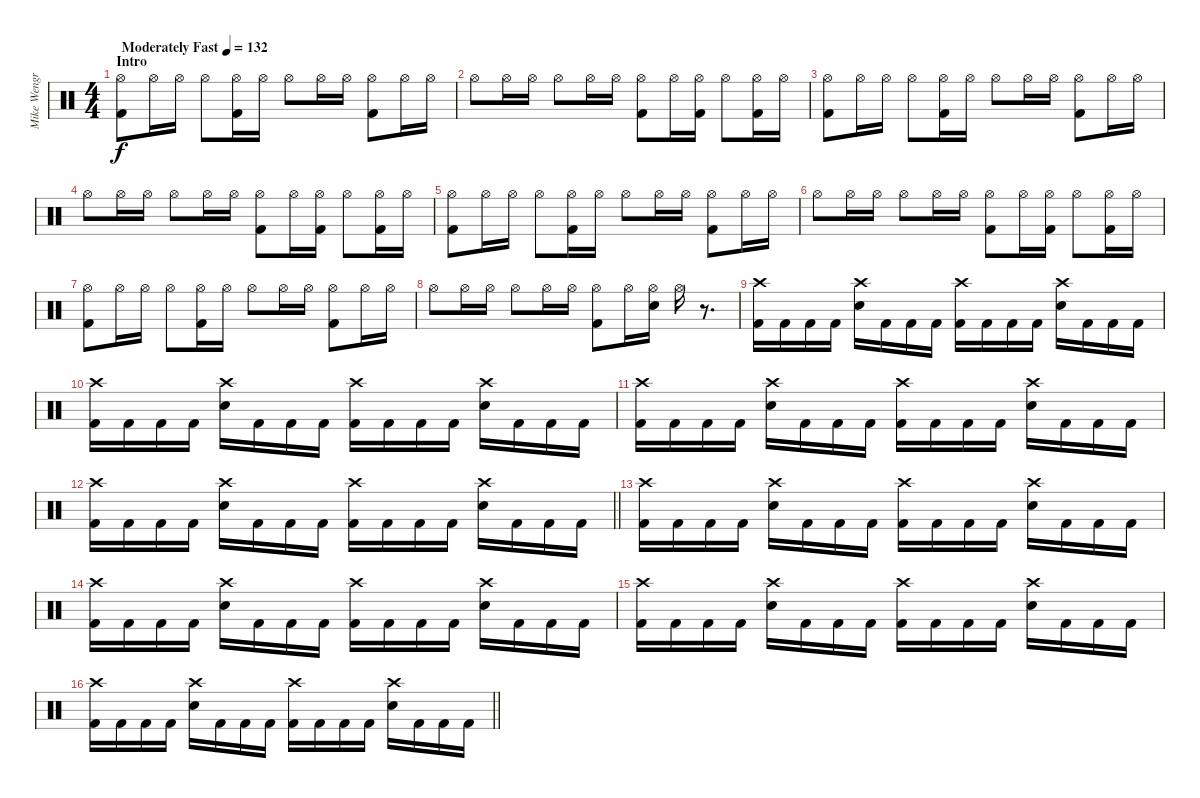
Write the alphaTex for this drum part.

\track ("Mike Wengren" "Mike Wengr") {instrument percussion}
\staff {score}
\articulation defaults
\ts (4 4)
\section ("" "Intro")
\tempo (132 "Moderately Fast")
\clef neutral
\ks c
("Hi-Hat (open)" "Kick (hit) 2").8{dy f} "Hi-Hat (open)".16 "Hi-Hat (open)".16 "Hi-Hat (open)".8 ("Hi-Hat (open)" "Kick (hit) 2").16 "Hi-Hat (open)".16 "Hi-Hat (open)".8 "Hi-Hat (open)".16 "Hi-Hat (open)".16 ("Hi-Hat (open)" "Kick (hit) 2").8 "Hi-Hat (open)".16 "Hi-Hat (open)".16 |
"Hi-Hat (open)".8 "Hi-Hat (open)".16 "Hi-Hat (open)".16 "Hi-Hat (open)".8 "Hi-Hat (open)".16 "Hi-Hat (open)".16 ("Hi-Hat (open)" "Kick (hit) 2").8 "Hi-Hat (open)".16 ("Hi-Hat (open)" "Kick (hit) 2").16 "Hi-Hat (open)".8 ("Hi-Hat (open)" "Kick (hit) 2").16 "Hi-Hat (open)".16 |
("Hi-Hat (open)" "Kick (hit) 2").8 "Hi-Hat (open)".16 "Hi-Hat (open)".16 "Hi-Hat (open)".8 ("Hi-Hat (open)" "Kick (hit) 2").16 "Hi-Hat (open)".16 "Hi-Hat (open)".8 "Hi-Hat (open)".16 "Hi-Hat (open)".16 ("Hi-Hat (open)" "Kick (hit) 2").8 "Hi-Hat (open)".16 "Hi-Hat (open)".16 |
"Hi-Hat (open)".8 "Hi-Hat (open)".16 "Hi-Hat (open)".16 "Hi-Hat (open)".8 "Hi-Hat (open)".16 "Hi-Hat (open)".16 ("Hi-Hat (open)" "Kick (hit) 2").8 "Hi-Hat (open)".16 ("Hi-Hat (open)" "Kick (hit) 2").16 "Hi-Hat (open)".8 ("Hi-Hat (open)" "Kick (hit) 2").16 "Hi-Hat (open)".16 |
("Hi-Hat (open)" "Kick (hit) 2").8 "Hi-Hat (open)".16 "Hi-Hat (open)".16 "Hi-Hat (open)".8 ("Hi-Hat (open)" "Kick (hit) 2").16 "Hi-Hat (open)".16 "Hi-Hat (open)".8 "Hi-Hat (open)".16 "Hi-Hat (open)".16 ("Hi-Hat (open)" "Kick (hit) 2").8 "Hi-Hat (open)".16 "Hi-Hat (open)".16 |
"Hi-Hat (open)".8 "Hi-Hat (open)".16 "Hi-Hat (open)".16 "Hi-Hat (open)".8 "Hi-Hat (open)".16 "Hi-Hat (open)".16 ("Hi-Hat (open)" "Kick (hit) 2").8 "Hi-Hat (open)".16 ("Hi-Hat (open)" "Kick (hit) 2").16 "Hi-Hat (open)".8 ("Hi-Hat (open)" "Kick (hit) 2").16 "Hi-Hat (open)".16 |
("Hi-Hat (open)" "Kick (hit) 2").8 "Hi-Hat (open)".16 "Hi-Hat (open)".16 "Hi-Hat (open)".8 ("Hi-Hat (open)" "Kick (hit) 2").16 "Hi-Hat (open)".16 "Hi-Hat (open)".8 "Hi-Hat (open)".16 "Hi-Hat (open)".16 ("Hi-Hat (open)" "Kick (hit) 2").8 "Hi-Hat (open)".16 "Hi-Hat (open)".16 |
"Hi-Hat (open)".8 "Hi-Hat (open)".16 "Hi-Hat (open)".16 "Hi-Hat (open)".8 "Hi-Hat (open)".16 "Hi-Hat (open)".16 ("Hi-Hat (open)" "Kick (hit) 2").8 "Hi-Hat (open)".16 ("Hi-Hat (open)" "Electric Snare (hit)").16 "Hi-Hat (open)".16 r.8{d} |
("Crash high (hit)" "Kick (hit) 2").16 "Kick (hit) 2".16 "Kick (hit) 2".16 "Kick (hit) 2".16 ("Crash high (hit)" "Electric Snare (hit)").16 "Kick (hit) 2".16 "Kick (hit) 2".16 "Kick (hit) 2".16 ("Crash high (hit)" "Kick (hit) 2").16 "Kick (hit) 2".16 "Kick (hit) 2".16 "Kick (hit) 2".16 ("Crash high (hit)" "Electric Snare (hit)").16 "Kick (hit) 2".16 "Kick (hit) 2".16 "Kick (hit) 2".16 |
("Crash high (hit)" "Kick (hit) 2").16 "Kick (hit) 2".16 "Kick (hit) 2".16 "Kick (hit) 2".16 ("Crash high (hit)" "Electric Snare (hit)").16 "Kick (hit) 2".16 "Kick (hit) 2".16 "Kick (hit) 2".16 ("Crash high (hit)" "Kick (hit) 2").16 "Kick (hit) 2".16 "Kick (hit) 2".16 "Kick (hit) 2".16 ("Crash high (hit)" "Electric Snare (hit)").16 "Kick (hit) 2".16 "Kick (hit) 2".16 "Kick (hit) 2".16 |
("Crash high (hit)" "Kick (hit) 2").16 "Kick (hit) 2".16 "Kick (hit) 2".16 "Kick (hit) 2".16 ("Crash high (hit)" "Electric Snare (hit)").16 "Kick (hit) 2".16 "Kick (hit) 2".16 "Kick (hit) 2".16 ("Crash high (hit)" "Kick (hit) 2").16 "Kick (hit) 2".16 "Kick (hit) 2".16 "Kick (hit) 2".16 ("Crash high (hit)" "Electric Snare (hit)").16 "Kick (hit) 2".16 "Kick (hit) 2".16 "Kick (hit) 2".16 |
\barLineRight lightlight
("Crash high (hit)" "Kick (hit) 2").16 "Kick (hit) 2".16 "Kick (hit) 2".16 "Kick (hit) 2".16 ("Crash high (hit)" "Electric Snare (hit)").16 "Kick (hit) 2".16 "Kick (hit) 2".16 "Kick (hit) 2".16 ("Crash high (hit)" "Kick (hit) 2").16 "Kick (hit) 2".16 "Kick (hit) 2".16 "Kick (hit) 2".16 ("Crash high (hit)" "Electric Snare (hit)").16 "Kick (hit) 2".16 "Kick (hit) 2".16 "Kick (hit) 2".16 |
("Crash high (hit)" "Kick (hit) 2").16 "Kick (hit) 2".16 "Kick (hit) 2".16 "Kick (hit) 2".16 ("Crash high (hit)" "Electric Snare (hit)").16 "Kick (hit) 2".16 "Kick (hit) 2".16 "Kick (hit) 2".16 ("Crash high (hit)" "Kick (hit) 2").16 "Kick (hit) 2".16 "Kick (hit) 2".16 "Kick (hit) 2".16 ("Crash high (hit)" "Electric Snare (hit)").16 "Kick (hit) 2".16 "Kick (hit) 2".16 "Kick (hit) 2".16 |
("Crash high (hit)" "Kick (hit) 2").16 "Kick (hit) 2".16 "Kick (hit) 2".16 "Kick (hit) 2".16 ("Crash high (hit)" "Electric Snare (hit)").16 "Kick (hit) 2".16 "Kick (hit) 2".16 "Kick (hit) 2".16 ("Crash high (hit)" "Kick (hit) 2").16 "Kick (hit) 2".16 "Kick (hit) 2".16 "Kick (hit) 2".16 ("Crash high (hit)" "Electric Snare (hit)").16 "Kick (hit) 2".16 "Kick (hit) 2".16 "Kick (hit) 2".16 |
("Crash high (hit)" "Kick (hit) 2").16 "Kick (hit) 2".16 "Kick (hit) 2".16 "Kick (hit) 2".16 ("Crash high (hit)" "Electric Snare (hit)").16 "Kick (hit) 2".16 "Kick (hit) 2".16 "Kick (hit) 2".16 ("Crash high (hit)" "Kick (hit) 2").16 "Kick (hit) 2".16 "Kick (hit) 2".16 "Kick (hit) 2".16 ("Crash high (hit)" "Electric Snare (hit)").16 "Kick (hit) 2".16 "Kick (hit) 2".16 "Kick (hit) 2".16 |
\barLineRight lightlight
("Crash high (hit)" "Kick (hit) 2").16 "Kick (hit) 2".16 "Kick (hit) 2".16 "Kick (hit) 2".16 ("Crash high (hit)" "Electric Snare (hit)").16 "Kick (hit) 2".16 "Kick (hit) 2".16 "Kick (hit) 2".16 ("Crash high (hit)" "Kick (hit) 2").16 "Kick (hit) 2".16 "Kick (hit) 2".16 "Kick (hit) 2".16 ("Crash high (hit)" "Electric Snare (hit)").16 "Kick (hit) 2".16 "Kick (hit) 2".16 "Kick (hit) 2".16
